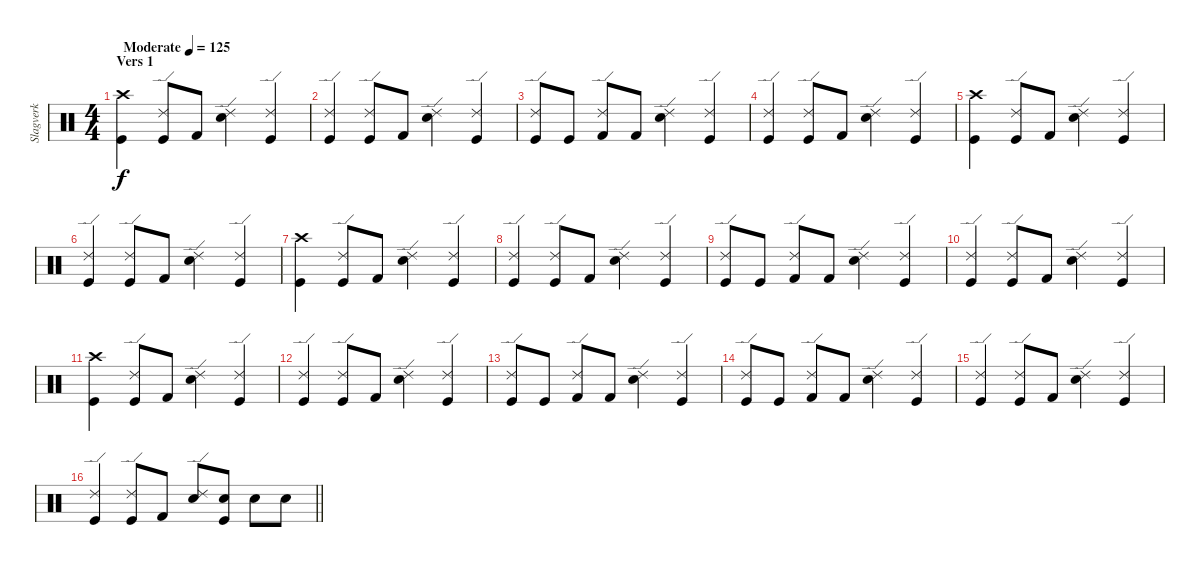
\track ("Slagverk" "Slagverk") {instrument percussion}
\staff {score}
\articulation defaults
\ts (4 4)
\section ("" "Vers 1")
\tempo (125 "Moderate")
\clef neutral
\ks c
("Crash high (hit)" "Kick (hit)").4{dy f} ("Ride (edge) 2" "Kick (hit)").8 "Kick (hit) 2".8 ("Ride (edge) 2" "Snare (hit) 2").4 ("Ride (edge) 2" "Kick (hit)").4 |
("Ride (edge) 2" "Kick (hit)").4 ("Ride (edge) 2" "Kick (hit)").8 "Kick (hit) 2".8 ("Ride (edge) 2" "Snare (hit) 2").4 ("Ride (edge) 2" "Kick (hit)").4 |
("Ride (edge) 2" "Kick (hit)").8 "Kick (hit)".8 ("Ride (edge) 2" "Kick (hit) 2").8 "Kick (hit) 2".8 ("Ride (edge) 2" "Snare (hit) 2").4 ("Ride (edge) 2" "Kick (hit)").4 |
("Ride (edge) 2" "Kick (hit)").4 ("Ride (edge) 2" "Kick (hit)").8 "Kick (hit) 2".8 ("Ride (edge) 2" "Snare (hit) 2").4 ("Ride (edge) 2" "Kick (hit)").4 |
("Crash high (hit)" "Kick (hit)").4 ("Ride (edge) 2" "Kick (hit)").8 "Kick (hit) 2".8 ("Ride (edge) 2" "Snare (hit) 2").4 ("Ride (edge) 2" "Kick (hit)").4 |
("Ride (edge) 2" "Kick (hit)").4 ("Ride (edge) 2" "Kick (hit)").8 "Kick (hit) 2".8 ("Ride (edge) 2" "Snare (hit) 2").4 ("Ride (edge) 2" "Kick (hit)").4 |
("Crash high (hit)" "Kick (hit)").4 ("Ride (edge) 2" "Kick (hit)").8 "Kick (hit) 2".8 ("Ride (edge) 2" "Snare (hit) 2").4 ("Ride (edge) 2" "Kick (hit)").4 |
("Ride (edge) 2" "Kick (hit)").4 ("Ride (edge) 2" "Kick (hit)").8 "Kick (hit) 2".8 ("Ride (edge) 2" "Snare (hit) 2").4 ("Ride (edge) 2" "Kick (hit)").4 |
("Ride (edge) 2" "Kick (hit)").8 "Kick (hit)".8 ("Ride (edge) 2" "Kick (hit) 2").8 "Kick (hit) 2".8 ("Ride (edge) 2" "Snare (hit) 2").4 ("Ride (edge) 2" "Kick (hit)").4 |
("Ride (edge) 2" "Kick (hit)").4 ("Ride (edge) 2" "Kick (hit)").8 "Kick (hit) 2".8 ("Ride (edge) 2" "Snare (hit) 2").4 ("Ride (edge) 2" "Kick (hit)").4 |
("Crash high (hit)" "Kick (hit)").4 ("Ride (edge) 2" "Kick (hit)").8 "Kick (hit) 2".8 ("Ride (edge) 2" "Snare (hit) 2").4 ("Ride (edge) 2" "Kick (hit)").4 |
("Ride (edge) 2" "Kick (hit)").4 ("Ride (edge) 2" "Kick (hit)").8 "Kick (hit) 2".8 ("Ride (edge) 2" "Snare (hit) 2").4 ("Ride (edge) 2" "Kick (hit)").4 |
("Ride (edge) 2" "Kick (hit)").8 "Kick (hit)".8 ("Ride (edge) 2" "Kick (hit) 2").8 "Kick (hit) 2".8 ("Ride (edge) 2" "Snare (hit) 2").4 ("Ride (edge) 2" "Kick (hit)").4 |
("Ride (edge) 2" "Kick (hit)").8 "Kick (hit)".8 ("Ride (edge) 2" "Kick (hit) 2").8 "Kick (hit) 2".8 ("Ride (edge) 2" "Snare (hit) 2").4 ("Ride (edge) 2" "Kick (hit)").4 |
("Ride (edge) 2" "Kick (hit)").4 ("Ride (edge) 2" "Kick (hit)").8 "Kick (hit) 2".8 ("Ride (edge) 2" "Snare (hit) 2").4 ("Ride (edge) 2" "Kick (hit)").4 |
\barLineRight lightlight
("Ride (edge) 2" "Kick (hit)").4 ("Ride (edge) 2" "Kick (hit)").8 "Kick (hit) 2".8 ("Ride (edge) 2" "Snare (hit) 2").8 ("Snare (hit) 2" "Kick (hit)").8 "Snare (hit) 2".8 "Snare (hit) 2".8
